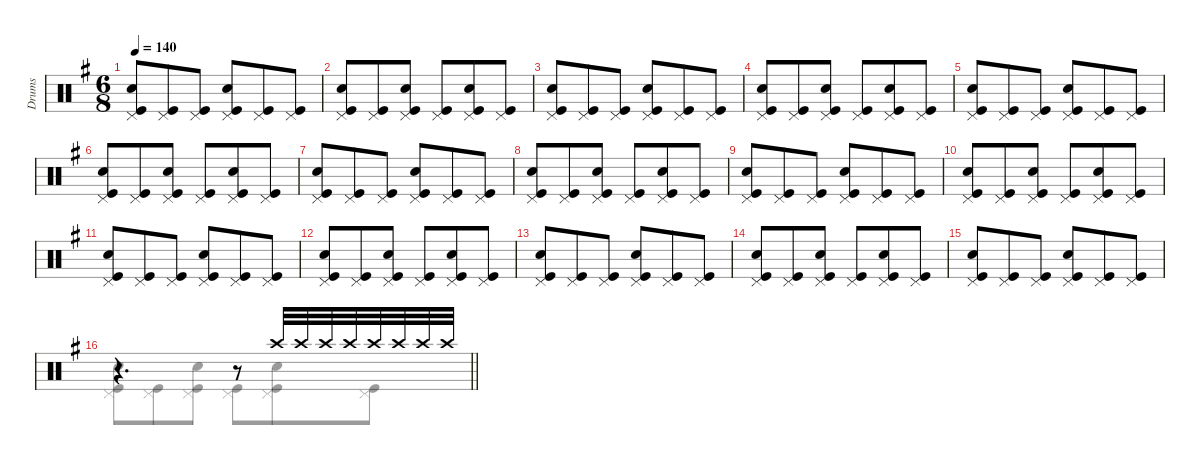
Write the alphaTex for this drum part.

\defaultSystemsLayout 8
\hideDynamics
\bracketExtendMode groupsimilarinstruments
\firstSystemTrackNameMode fullname
\otherSystemsTrackNameOrientation horizontal
\track ("Drums" "drm.") {defaultSystemsLayout 4 instrument percussion}
\staff {score}
\articulation defaults
\voice
\ts (6 8)
\tempo 140
\clef neutral
\ks g
("Snare (hit) 2"{acc forcenatural} "Kick (hit)"{acc forcenatural} "Pedal Hi-Hat (hit)"{acc forcenatural}).8{dy f beam Up} ("Kick (hit)"{acc forcenatural} "Pedal Hi-Hat (hit)"{acc forcenatural}).8{beam Up} ("Kick (hit)"{acc forcenatural} "Pedal Hi-Hat (hit)"{acc forcenatural}).8{beam Up} ("Snare (hit) 2"{acc forcenatural} "Kick (hit)"{acc forcenatural} "Pedal Hi-Hat (hit)"{acc forcenatural}).8{beam Up} ("Kick (hit)"{acc forcenatural} "Pedal Hi-Hat (hit)"{acc forcenatural}).8{beam Up} ("Kick (hit)"{acc forcenatural} "Pedal Hi-Hat (hit)"{acc forcenatural}).8{beam Up} |
("Snare (hit) 2"{acc forcenatural} "Kick (hit)"{acc forcenatural} "Pedal Hi-Hat (hit)"{acc forcenatural}).8{beam Up} ("Kick (hit)"{acc forcenatural} "Pedal Hi-Hat (hit)"{acc forcenatural}).8{beam Up} ("Snare (hit) 2"{acc forcenatural} "Kick (hit)"{acc forcenatural} "Pedal Hi-Hat (hit)"{acc forcenatural}).8{beam Up} ("Kick (hit)"{acc forcenatural} "Pedal Hi-Hat (hit)"{acc forcenatural}).8{beam Up} ("Snare (hit) 2"{acc forcenatural} "Kick (hit)"{acc forcenatural} "Pedal Hi-Hat (hit)"{acc forcenatural}).8{beam Up} ("Kick (hit)"{acc forcenatural} "Pedal Hi-Hat (hit)"{acc forcenatural}).8{beam Up} |
("Snare (hit) 2"{acc forcenatural} "Kick (hit)"{acc forcenatural} "Pedal Hi-Hat (hit)"{acc forcenatural}).8{beam Up} ("Kick (hit)"{acc forcenatural} "Pedal Hi-Hat (hit)"{acc forcenatural}).8{beam Up} ("Kick (hit)"{acc forcenatural} "Pedal Hi-Hat (hit)"{acc forcenatural}).8{beam Up} ("Snare (hit) 2"{acc forcenatural} "Kick (hit)"{acc forcenatural} "Pedal Hi-Hat (hit)"{acc forcenatural}).8{beam Up} ("Kick (hit)"{acc forcenatural} "Pedal Hi-Hat (hit)"{acc forcenatural}).8{beam Up} ("Kick (hit)"{acc forcenatural} "Pedal Hi-Hat (hit)"{acc forcenatural}).8{beam Up} |
("Snare (hit) 2"{acc forcenatural} "Kick (hit)"{acc forcenatural} "Pedal Hi-Hat (hit)"{acc forcenatural}).8{beam Up} ("Kick (hit)"{acc forcenatural} "Pedal Hi-Hat (hit)"{acc forcenatural}).8{beam Up} ("Snare (hit) 2"{acc forcenatural} "Kick (hit)"{acc forcenatural} "Pedal Hi-Hat (hit)"{acc forcenatural}).8{beam Up} ("Kick (hit)"{acc forcenatural} "Pedal Hi-Hat (hit)"{acc forcenatural}).8{beam Up} ("Snare (hit) 2"{acc forcenatural} "Kick (hit)"{acc forcenatural} "Pedal Hi-Hat (hit)"{acc forcenatural}).8{beam Up} ("Kick (hit)"{acc forcenatural} "Pedal Hi-Hat (hit)"{acc forcenatural}).8{beam Up} |
("Snare (hit) 2"{acc forcenatural} "Kick (hit)"{acc forcenatural} "Pedal Hi-Hat (hit)"{acc forcenatural}).8{beam Up} ("Kick (hit)"{acc forcenatural} "Pedal Hi-Hat (hit)"{acc forcenatural}).8{beam Up} ("Kick (hit)"{acc forcenatural} "Pedal Hi-Hat (hit)"{acc forcenatural}).8{beam Up} ("Snare (hit) 2"{acc forcenatural} "Kick (hit)"{acc forcenatural} "Pedal Hi-Hat (hit)"{acc forcenatural}).8{beam Up} ("Kick (hit)"{acc forcenatural} "Pedal Hi-Hat (hit)"{acc forcenatural}).8{beam Up} ("Kick (hit)"{acc forcenatural} "Pedal Hi-Hat (hit)"{acc forcenatural}).8{beam Up} |
("Snare (hit) 2"{acc forcenatural} "Kick (hit)"{acc forcenatural} "Pedal Hi-Hat (hit)"{acc forcenatural}).8{beam Up} ("Kick (hit)"{acc forcenatural} "Pedal Hi-Hat (hit)"{acc forcenatural}).8{beam Up} ("Snare (hit) 2"{acc forcenatural} "Kick (hit)"{acc forcenatural} "Pedal Hi-Hat (hit)"{acc forcenatural}).8{beam Up} ("Kick (hit)"{acc forcenatural} "Pedal Hi-Hat (hit)"{acc forcenatural}).8{beam Up} ("Snare (hit) 2"{acc forcenatural} "Kick (hit)"{acc forcenatural} "Pedal Hi-Hat (hit)"{acc forcenatural}).8{beam Up} ("Kick (hit)"{acc forcenatural} "Pedal Hi-Hat (hit)"{acc forcenatural}).8{beam Up} |
("Snare (hit) 2"{acc forcenatural} "Kick (hit)"{acc forcenatural} "Pedal Hi-Hat (hit)"{acc forcenatural}).8{beam Up} ("Kick (hit)"{acc forcenatural} "Pedal Hi-Hat (hit)"{acc forcenatural}).8{beam Up} ("Kick (hit)"{acc forcenatural} "Pedal Hi-Hat (hit)"{acc forcenatural}).8{beam Up} ("Snare (hit) 2"{acc forcenatural} "Kick (hit)"{acc forcenatural} "Pedal Hi-Hat (hit)"{acc forcenatural}).8{beam Up} ("Kick (hit)"{acc forcenatural} "Pedal Hi-Hat (hit)"{acc forcenatural}).8{beam Up} ("Kick (hit)"{acc forcenatural} "Pedal Hi-Hat (hit)"{acc forcenatural}).8{beam Up} |
("Snare (hit) 2"{acc forcenatural} "Kick (hit)"{acc forcenatural} "Pedal Hi-Hat (hit)"{acc forcenatural}).8{beam Up} ("Kick (hit)"{acc forcenatural} "Pedal Hi-Hat (hit)"{acc forcenatural}).8{beam Up} ("Snare (hit) 2"{acc forcenatural} "Kick (hit)"{acc forcenatural} "Pedal Hi-Hat (hit)"{acc forcenatural}).8{beam Up} ("Kick (hit)"{acc forcenatural} "Pedal Hi-Hat (hit)"{acc forcenatural}).8{beam Up} ("Snare (hit) 2"{acc forcenatural} "Kick (hit)"{acc forcenatural} "Pedal Hi-Hat (hit)"{acc forcenatural}).8{beam Up} ("Kick (hit)"{acc forcenatural} "Pedal Hi-Hat (hit)"{acc forcenatural}).8{beam Up} |
("Snare (hit) 2"{acc forcenatural} "Kick (hit)"{acc forcenatural} "Pedal Hi-Hat (hit)"{acc forcenatural}).8{beam Up} ("Kick (hit)"{acc forcenatural} "Pedal Hi-Hat (hit)"{acc forcenatural}).8{beam Up} ("Kick (hit)"{acc forcenatural} "Pedal Hi-Hat (hit)"{acc forcenatural}).8{beam Up} ("Snare (hit) 2"{acc forcenatural} "Kick (hit)"{acc forcenatural} "Pedal Hi-Hat (hit)"{acc forcenatural}).8{beam Up} ("Kick (hit)"{acc forcenatural} "Pedal Hi-Hat (hit)"{acc forcenatural}).8{beam Up} ("Kick (hit)"{acc forcenatural} "Pedal Hi-Hat (hit)"{acc forcenatural}).8{beam Up} |
("Snare (hit) 2"{acc forcenatural} "Kick (hit)"{acc forcenatural} "Pedal Hi-Hat (hit)"{acc forcenatural}).8{beam Up} ("Kick (hit)"{acc forcenatural} "Pedal Hi-Hat (hit)"{acc forcenatural}).8{beam Up} ("Snare (hit) 2"{acc forcenatural} "Kick (hit)"{acc forcenatural} "Pedal Hi-Hat (hit)"{acc forcenatural}).8{beam Up} ("Kick (hit)"{acc forcenatural} "Pedal Hi-Hat (hit)"{acc forcenatural}).8{beam Up} ("Snare (hit) 2"{acc forcenatural} "Kick (hit)"{acc forcenatural} "Pedal Hi-Hat (hit)"{acc forcenatural}).8{beam Up} ("Kick (hit)"{acc forcenatural} "Pedal Hi-Hat (hit)"{acc forcenatural}).8{beam Up} |
("Snare (hit) 2"{acc forcenatural} "Kick (hit)"{acc forcenatural} "Pedal Hi-Hat (hit)"{acc forcenatural}).8{beam Up} ("Kick (hit)"{acc forcenatural} "Pedal Hi-Hat (hit)"{acc forcenatural}).8{beam Up} ("Kick (hit)"{acc forcenatural} "Pedal Hi-Hat (hit)"{acc forcenatural}).8{beam Up} ("Snare (hit) 2"{acc forcenatural} "Kick (hit)"{acc forcenatural} "Pedal Hi-Hat (hit)"{acc forcenatural}).8{beam Up} ("Kick (hit)"{acc forcenatural} "Pedal Hi-Hat (hit)"{acc forcenatural}).8{beam Up} ("Kick (hit)"{acc forcenatural} "Pedal Hi-Hat (hit)"{acc forcenatural}).8{beam Up} |
("Snare (hit) 2"{acc forcenatural} "Kick (hit)"{acc forcenatural} "Pedal Hi-Hat (hit)"{acc forcenatural}).8{beam Up} ("Kick (hit)"{acc forcenatural} "Pedal Hi-Hat (hit)"{acc forcenatural}).8{beam Up} ("Snare (hit) 2"{acc forcenatural} "Kick (hit)"{acc forcenatural} "Pedal Hi-Hat (hit)"{acc forcenatural}).8{beam Up} ("Kick (hit)"{acc forcenatural} "Pedal Hi-Hat (hit)"{acc forcenatural}).8{beam Up} ("Snare (hit) 2"{acc forcenatural} "Kick (hit)"{acc forcenatural} "Pedal Hi-Hat (hit)"{acc forcenatural}).8{beam Up} ("Kick (hit)"{acc forcenatural} "Pedal Hi-Hat (hit)"{acc forcenatural}).8{beam Up} |
("Snare (hit) 2"{acc forcenatural} "Kick (hit)"{acc forcenatural} "Pedal Hi-Hat (hit)"{acc forcenatural}).8{beam Up} ("Kick (hit)"{acc forcenatural} "Pedal Hi-Hat (hit)"{acc forcenatural}).8{beam Up} ("Kick (hit)"{acc forcenatural} "Pedal Hi-Hat (hit)"{acc forcenatural}).8{beam Up} ("Snare (hit) 2"{acc forcenatural} "Kick (hit)"{acc forcenatural} "Pedal Hi-Hat (hit)"{acc forcenatural}).8{beam Up} ("Kick (hit)"{acc forcenatural} "Pedal Hi-Hat (hit)"{acc forcenatural}).8{beam Up} ("Kick (hit)"{acc forcenatural} "Pedal Hi-Hat (hit)"{acc forcenatural}).8{beam Up} |
("Snare (hit) 2"{acc forcenatural} "Kick (hit)"{acc forcenatural} "Pedal Hi-Hat (hit)"{acc forcenatural}).8{beam Up} ("Kick (hit)"{acc forcenatural} "Pedal Hi-Hat (hit)"{acc forcenatural}).8{beam Up} ("Snare (hit) 2"{acc forcenatural} "Kick (hit)"{acc forcenatural} "Pedal Hi-Hat (hit)"{acc forcenatural}).8{beam Up} ("Kick (hit)"{acc forcenatural} "Pedal Hi-Hat (hit)"{acc forcenatural}).8{beam Up} ("Snare (hit) 2"{acc forcenatural} "Kick (hit)"{acc forcenatural} "Pedal Hi-Hat (hit)"{acc forcenatural}).8{beam Up} ("Kick (hit)"{acc forcenatural} "Pedal Hi-Hat (hit)"{acc forcenatural}).8{beam Up} |
("Snare (hit) 2"{acc forcenatural} "Kick (hit)"{acc forcenatural} "Pedal Hi-Hat (hit)"{acc forcenatural}).8{beam Up} ("Kick (hit)"{acc forcenatural} "Pedal Hi-Hat (hit)"{acc forcenatural}).8{beam Up} ("Kick (hit)"{acc forcenatural} "Pedal Hi-Hat (hit)"{acc forcenatural}).8{beam Up} ("Snare (hit) 2"{acc forcenatural} "Kick (hit)"{acc forcenatural} "Pedal Hi-Hat (hit)"{acc forcenatural}).8{beam Up} ("Kick (hit)"{acc forcenatural} "Pedal Hi-Hat (hit)"{acc forcenatural}).8{beam Up} ("Kick (hit)"{acc forcenatural} "Pedal Hi-Hat (hit)"{acc forcenatural}).8{beam Up} |
\barLineRight lightlight
r.4{d beam Up} r.8{beam Up} "Crash high (hit)"{acc forcenatural}.32{dy pp beam Up} "Crash high (hit)"{acc forcenatural}.32{beam Up} "Crash high (hit)"{acc forcenatural}.32{dy p beam Up} "Crash high (hit)"{acc forcenatural}.32{beam Up} "Crash high (hit)"{acc forcenatural}.32{dy mp beam Up} "Crash high (hit)"{acc forcenatural}.32{beam Up} "Crash high (hit)"{acc forcenatural}.32{dy mf beam Up} "Crash high (hit)"{acc forcenatural}.32{beam Up}
\voice
\clef neutral
\ottava regular
\simile none
\ks g
|
|
|
|
|
|
|
|
|
|
|
|
|
|
|
\barLineRight lightlight
("Snare (hit) 2"{acc forcenatural} "Kick (hit)"{acc forcenatural} "Pedal Hi-Hat (hit)"{acc forcenatural}).8{beam Down} ("Kick (hit)"{acc forcenatural} "Pedal Hi-Hat (hit)"{acc forcenatural}).8{beam Down} ("Snare (hit) 2"{acc forcenatural} "Kick (hit)"{acc forcenatural} "Pedal Hi-Hat (hit)"{acc forcenatural}).8{beam Down} ("Kick (hit)"{acc forcenatural} "Pedal Hi-Hat (hit)"{acc forcenatural}).8{beam Down} ("Snare (hit) 2"{acc forcenatural} "Kick (hit)"{acc forcenatural} "Pedal Hi-Hat (hit)"{acc forcenatural}).8{beam Down} ("Kick (hit)"{acc forcenatural} "Pedal Hi-Hat (hit)"{acc forcenatural}).8{beam Down}
